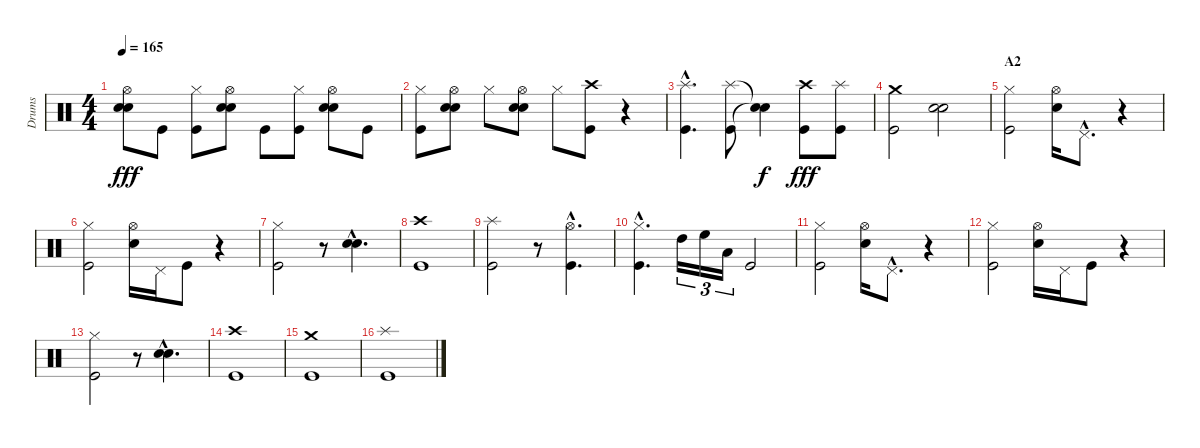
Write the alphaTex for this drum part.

\track ("Drums" "Drums") {instrument percussion}
\staff {score}
\articulation defaults
\ts (4 4)
\tempo 165
\clef neutral
\ks c
("Hi-Hat (open)" "Snare (hit) 2" "Snare (hit) 2").8{dy fff} "Kick (hit)".8 ("Hi-Hat (closed)" "Kick (hit)").8 ("Hi-Hat (open)" "Snare (hit) 2" "Snare (hit) 2").8 "Kick (hit)".8 ("Hi-Hat (closed)" "Kick (hit)").8 ("Hi-Hat (open)" "Snare (hit) 2" "Snare (hit) 2").8 "Kick (hit)".8 |
("Hi-Hat (closed)" "Kick (hit)").8 ("Hi-Hat (open)" "Snare (hit) 2" "Snare (hit) 2").8 "Hi-Hat (closed)".8 ("Hi-Hat (open)" "Snare (hit) 2" "Snare (hit) 2").8 "Hi-Hat (closed)".8 ("Crash high (hit)" "Kick (hit)").8 r.4 |
("Splash (hit)"{hac} "Kick (hit)"{hac}).4{d} ("Splash (hit)" "Kick (hit)").8 ("Snare (hit)"{t} "Snare (hit)"{t}).4{dy f} ("Crash high (hit)" "Kick (hit)").8{dy fff} ("Splash (hit)" "Kick (hit)").8 |
("Crash medium (hit)" "Kick (hit)").2 ("Snare (hit) 2" "Snare (hit) 2").2 |
\section ("" "A2")
("Hi-Hat (closed)" "Kick (hit)").2 ("Hi-Hat (open)" "Snare (hit) 2").16 "Pedal Hi-Hat (hit)"{hac}.8{d} r.4 |
("Hi-Hat (closed)" "Kick (hit)").2 ("Hi-Hat (open)" "Snare (hit) 2").16 "Pedal Hi-Hat (hit)".16 "Kick (hit)".8 r.4 |
("Hi-Hat (closed)" "Kick (hit)").2 r.8 ("Snare (hit) 2"{hac} "Snare (hit) 2"{hac}).4{d} |
("Crash high (hit)" "Kick (hit)").1 |
("Splash (hit)" "Kick (hit)").2 r.8 ("Hi-Hat (open)"{hac} "Kick (hit)"{hac}).4{d} |
("Hi-Hat (closed)"{hac} "Kick (hit)"{hac}).4{d} "High Tom (hit)".16{tu (3 2)} "High Floor Tom (hit)".16{tu (3 2)} "Low Tom (hit)".16{tu (3 2)} "Kick (hit)".2 |
("Hi-Hat (closed)" "Kick (hit)").2 ("Hi-Hat (open)" "Snare (hit) 2").16 "Pedal Hi-Hat (hit)"{hac}.8{d} r.4 |
("Hi-Hat (closed)" "Kick (hit)").2 ("Hi-Hat (open)" "Snare (hit) 2").16 "Pedal Hi-Hat (hit)".16 "Kick (hit)".8 r.4 |
("Hi-Hat (closed)" "Kick (hit)").2 r.8 ("Snare (hit) 2"{hac} "Snare (hit) 2"{hac}).4{d} |
("Crash high (hit)" "Kick (hit)").1 |
("Crash medium (hit)" "Kick (hit)").1 |
("Splash (hit)" "Kick (hit)").1
